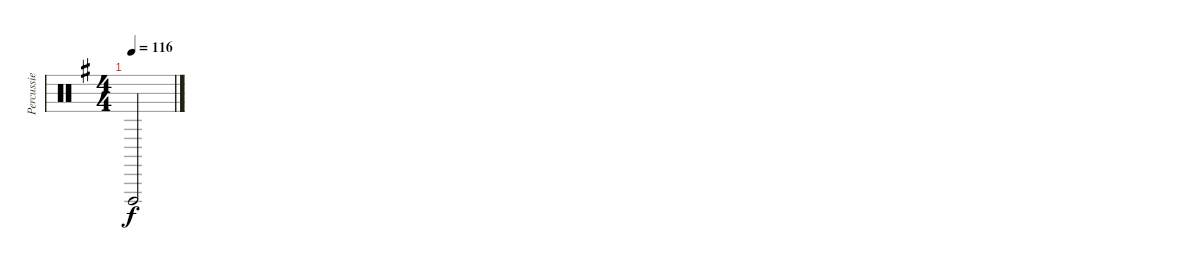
\track ("Percussie" "Percussie") {instrument percussion}
\staff {score}
\articulation defaults
\ts (4 4)
\tempo 116
\clef neutral
\ks g "Vibraslap (hit)".2{dy f}
